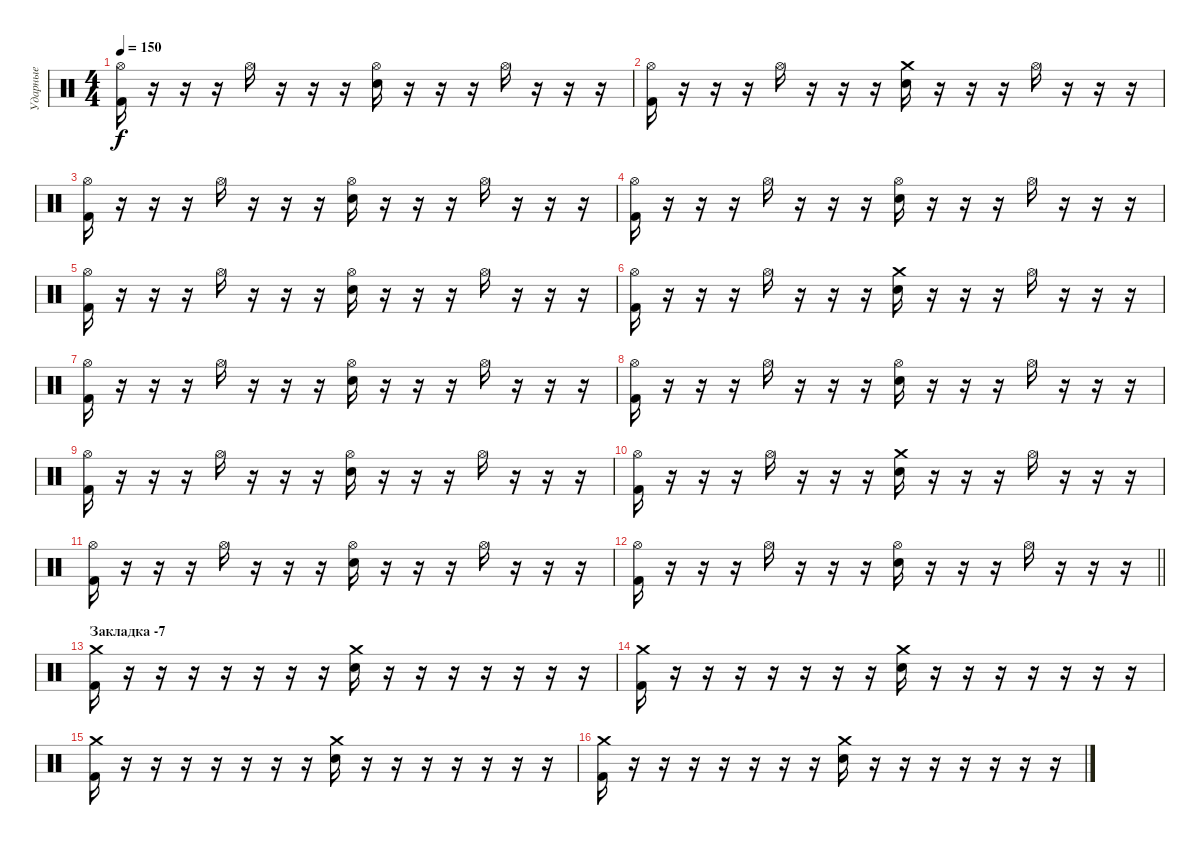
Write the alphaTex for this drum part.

\track ("Ударные" "Ударные") {instrument percussion}
\staff {score}
\articulation defaults
\ts (4 4)
\tempo 150
\clef neutral
\ks c
("Hi-Hat (open)" "Kick (hit) 2").16{dy f} r.16 r.16 r.16 "Hi-Hat (open)".16 r.16 r.16 r.16 ("Hi-Hat (open)" "Electric Snare (hit)").16 r.16 r.16 r.16 "Hi-Hat (open)".16 r.16 r.16 r.16 |
("Hi-Hat (open)" "Kick (hit) 2").16 r.16 r.16 r.16 "Hi-Hat (open)".16 r.16 r.16 r.16 ("Crash medium (hit)" "Electric Snare (hit)").16 r.16 r.16 r.16 "Hi-Hat (open)".16 r.16 r.16 r.16 |
("Hi-Hat (open)" "Kick (hit) 2").16 r.16 r.16 r.16 "Hi-Hat (open)".16 r.16 r.16 r.16 ("Hi-Hat (open)" "Electric Snare (hit)").16 r.16 r.16 r.16 "Hi-Hat (open)".16 r.16 r.16 r.16 |
("Hi-Hat (open)" "Kick (hit) 2").16 r.16 r.16 r.16 "Hi-Hat (open)".16 r.16 r.16 r.16 ("Hi-Hat (open)" "Electric Snare (hit)").16 r.16 r.16 r.16 "Hi-Hat (open)".16 r.16 r.16 r.16 |
("Hi-Hat (open)" "Kick (hit) 2").16 r.16 r.16 r.16 "Hi-Hat (open)".16 r.16 r.16 r.16 ("Hi-Hat (open)" "Electric Snare (hit)").16 r.16 r.16 r.16 "Hi-Hat (open)".16 r.16 r.16 r.16 |
("Hi-Hat (open)" "Kick (hit) 2").16 r.16 r.16 r.16 "Hi-Hat (open)".16 r.16 r.16 r.16 ("Crash medium (hit)" "Electric Snare (hit)").16 r.16 r.16 r.16 "Hi-Hat (open)".16 r.16 r.16 r.16 |
("Hi-Hat (open)" "Kick (hit) 2").16 r.16 r.16 r.16 "Hi-Hat (open)".16 r.16 r.16 r.16 ("Hi-Hat (open)" "Electric Snare (hit)").16 r.16 r.16 r.16 "Hi-Hat (open)".16 r.16 r.16 r.16 |
("Hi-Hat (open)" "Kick (hit) 2").16 r.16 r.16 r.16 "Hi-Hat (open)".16 r.16 r.16 r.16 ("Hi-Hat (open)" "Electric Snare (hit)").16 r.16 r.16 r.16 "Hi-Hat (open)".16 r.16 r.16 r.16 |
("Hi-Hat (open)" "Kick (hit) 2").16 r.16 r.16 r.16 "Hi-Hat (open)".16 r.16 r.16 r.16 ("Hi-Hat (open)" "Electric Snare (hit)").16 r.16 r.16 r.16 "Hi-Hat (open)".16 r.16 r.16 r.16 |
("Hi-Hat (open)" "Kick (hit) 2").16 r.16 r.16 r.16 "Hi-Hat (open)".16 r.16 r.16 r.16 ("Crash medium (hit)" "Electric Snare (hit)").16 r.16 r.16 r.16 "Hi-Hat (open)".16 r.16 r.16 r.16 |
("Hi-Hat (open)" "Kick (hit) 2").16 r.16 r.16 r.16 "Hi-Hat (open)".16 r.16 r.16 r.16 ("Hi-Hat (open)" "Electric Snare (hit)").16 r.16 r.16 r.16 "Hi-Hat (open)".16 r.16 r.16 r.16 |
\barLineRight lightlight
("Hi-Hat (open)" "Kick (hit) 2").16 r.16 r.16 r.16 "Hi-Hat (open)".16 r.16 r.16 r.16 ("Hi-Hat (open)" "Electric Snare (hit)").16 r.16 r.16 r.16 "Hi-Hat (open)".16 r.16 r.16 r.16 |
\section ("" "Закладка -7")
("Crash medium (hit)" "Kick (hit) 2").16 r.16 r.16 r.16 r.16 r.16 r.16 r.16 ("Crash medium (hit)" "Electric Snare (hit)").16 r.16 r.16 r.16 r.16 r.16 r.16 r.16 |
("Crash medium (hit)" "Kick (hit) 2").16 r.16 r.16 r.16 r.16 r.16 r.16 r.16 ("Crash medium (hit)" "Electric Snare (hit)").16 r.16 r.16 r.16 r.16 r.16 r.16 r.16 |
("Crash medium (hit)" "Kick (hit) 2").16 r.16 r.16 r.16 r.16 r.16 r.16 r.16 ("Crash medium (hit)" "Electric Snare (hit)").16 r.16 r.16 r.16 r.16 r.16 r.16 r.16 |
("Crash medium (hit)" "Kick (hit) 2").16 r.16 r.16 r.16 r.16 r.16 r.16 r.16 ("Crash medium (hit)" "Electric Snare (hit)").16 r.16 r.16 r.16 r.16 r.16 r.16 r.16
